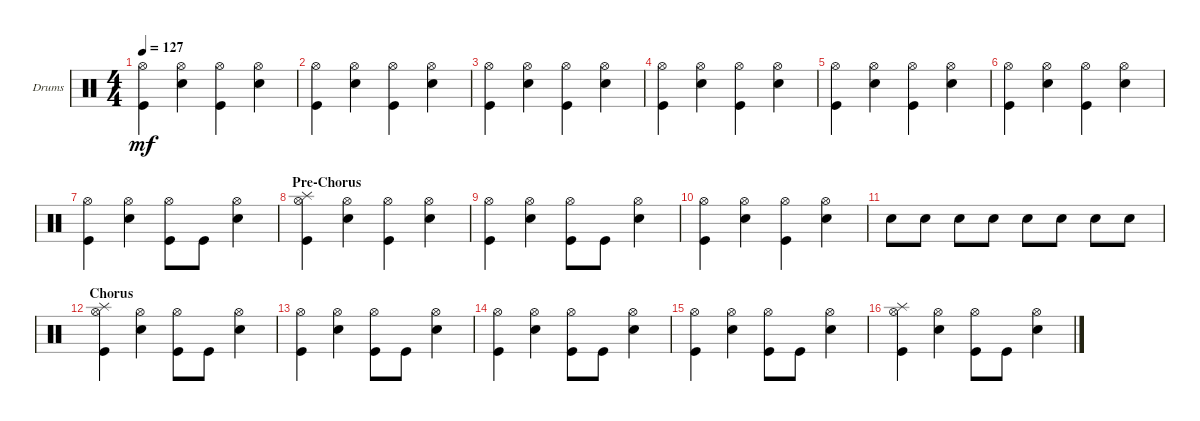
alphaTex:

\defaultSystemsLayout 4
\bracketExtendMode groupsimilarinstruments
\firstSystemTrackNameOrientation horizontal
\otherSystemsTrackNameOrientation horizontal
\track ("Drums 2" "Drums") {instrument percussion}
\staff {score}
\articulation defaults
\ts (4 4)
\tempo 127
\clef neutral
\ks c
("Kick (hit)" "Hi-Hat (open)").4{dy mf} ("Hi-Hat (open)" "Snare (hit) 2").4 ("Hi-Hat (open)" "Kick (hit)").4 ("Hi-Hat (open)" "Snare (hit) 2").4 |
("Kick (hit)" "Hi-Hat (open)").4 ("Hi-Hat (open)" "Snare (hit) 2").4 ("Hi-Hat (open)" "Kick (hit)").4 ("Hi-Hat (open)" "Snare (hit) 2").4 |
("Kick (hit)" "Hi-Hat (open)").4 ("Hi-Hat (open)" "Snare (hit) 2").4 ("Hi-Hat (open)" "Kick (hit)").4 ("Hi-Hat (open)" "Snare (hit) 2").4 |
("Kick (hit)" "Hi-Hat (open)").4 ("Hi-Hat (open)" "Snare (hit) 2").4 ("Hi-Hat (open)" "Kick (hit)").4 ("Hi-Hat (open)" "Snare (hit) 2").4 |
("Kick (hit)" "Hi-Hat (open)").4 ("Hi-Hat (open)" "Snare (hit) 2").4 ("Hi-Hat (open)" "Kick (hit)").4 ("Hi-Hat (open)" "Snare (hit) 2").4 |
("Kick (hit)" "Hi-Hat (open)").4 ("Hi-Hat (open)" "Snare (hit) 2").4 ("Hi-Hat (open)" "Kick (hit)").4 ("Hi-Hat (open)" "Snare (hit) 2").4 |
("Kick (hit)" "Hi-Hat (open)").4 ("Hi-Hat (open)" "Snare (hit) 2").4 ("Hi-Hat (open)" "Kick (hit)").8 "Kick (hit)".8 ("Hi-Hat (open)" "Snare (hit) 2").4 |
\section ("" "Pre-Chorus")
("Kick (hit)" "Hi-Hat (open)" "Splash (hit)").4 ("Hi-Hat (open)" "Snare (hit) 2").4 ("Hi-Hat (open)" "Kick (hit)").4 ("Hi-Hat (open)" "Snare (hit) 2").4 |
("Kick (hit)" "Hi-Hat (open)").4 ("Hi-Hat (open)" "Snare (hit) 2").4 ("Hi-Hat (open)" "Kick (hit)").8 "Kick (hit)".8 ("Hi-Hat (open)" "Snare (hit) 2").4 |
("Kick (hit)" "Hi-Hat (open)").4 ("Hi-Hat (open)" "Snare (hit) 2").4 ("Hi-Hat (open)" "Kick (hit)").4 ("Hi-Hat (open)" "Snare (hit) 2").4 |
"Snare (hit) 2".8 "Snare (hit) 2".8 "Snare (hit) 2".8 "Snare (hit) 2".8 "Snare (hit) 2".8 "Snare (hit) 2".8 "Snare (hit) 2".8 "Snare (hit) 2".8 |
\section ("" "Chorus")
("Kick (hit)" "Hi-Hat (open)" "Splash (hit)").4 ("Hi-Hat (open)" "Snare (hit) 2").4 ("Hi-Hat (open)" "Kick (hit)").8 "Kick (hit)".8 ("Hi-Hat (open)" "Snare (hit) 2").4 |
("Kick (hit)" "Hi-Hat (open)").4 ("Hi-Hat (open)" "Snare (hit) 2").4 ("Hi-Hat (open)" "Kick (hit)").8 "Kick (hit)".8 ("Hi-Hat (open)" "Snare (hit) 2").4 |
("Kick (hit)" "Hi-Hat (open)").4 ("Hi-Hat (open)" "Snare (hit) 2").4 ("Hi-Hat (open)" "Kick (hit)").8 "Kick (hit)".8 ("Hi-Hat (open)" "Snare (hit) 2").4 |
("Kick (hit)" "Hi-Hat (open)").4 ("Hi-Hat (open)" "Snare (hit) 2").4 ("Hi-Hat (open)" "Kick (hit)").8 "Kick (hit)".8 ("Hi-Hat (open)" "Snare (hit) 2").4 |
("Kick (hit)" "Hi-Hat (open)" "Splash (hit)").4 ("Hi-Hat (open)" "Snare (hit) 2").4 ("Hi-Hat (open)" "Kick (hit)").8 "Kick (hit)".8 ("Hi-Hat (open)" "Snare (hit) 2").4
